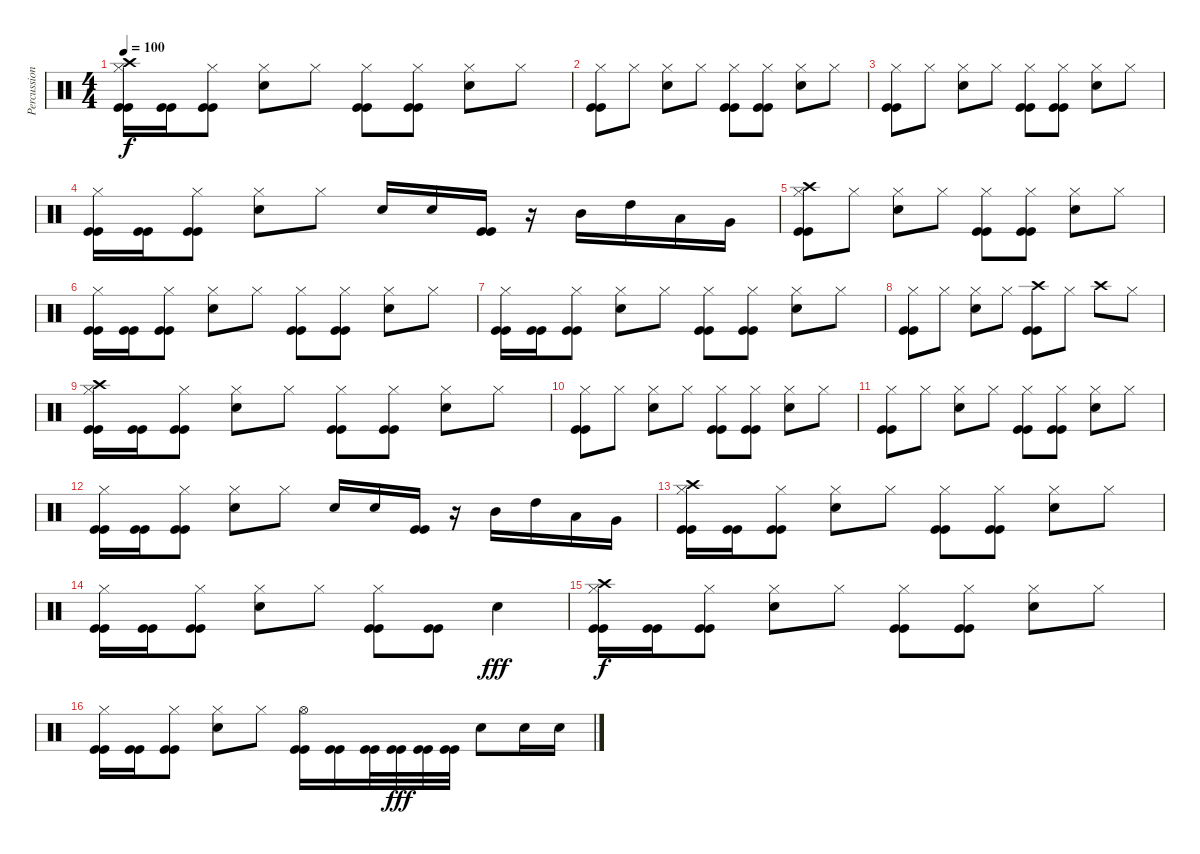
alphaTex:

\track ("Percussion" "Percussion") {instrument percussion}
\staff {score}
\articulation defaults
\ts (4 4)
\tempo 100
\clef neutral
\ks c
("Kick (hit)" "Kick (hit)" "Hi-Hat (closed)" "Crash high (hit)").16{dy f} ("Kick (hit)" "Kick (hit)").16 ("Kick (hit)" "Kick (hit)" "Hi-Hat (closed)").8 ("Snare (hit) 2" "Hi-Hat (closed)").8 "Hi-Hat (closed)".8 ("Kick (hit)" "Kick (hit)" "Hi-Hat (closed)").8 ("Kick (hit)" "Kick (hit)" "Hi-Hat (closed)").8 ("Snare (hit) 2" "Hi-Hat (closed)").8 "Hi-Hat (closed)".8 |
("Kick (hit)" "Kick (hit)" "Hi-Hat (closed)").8 "Hi-Hat (closed)".8 ("Snare (hit) 2" "Hi-Hat (closed)").8 "Hi-Hat (closed)".8 ("Kick (hit)" "Kick (hit)" "Hi-Hat (closed)").8 ("Kick (hit)" "Kick (hit)" "Hi-Hat (closed)").8 ("Snare (hit) 2" "Hi-Hat (closed)").8 "Hi-Hat (closed)".8 |
("Kick (hit)" "Kick (hit)" "Hi-Hat (closed)").8 "Hi-Hat (closed)".8 ("Snare (hit) 2" "Hi-Hat (closed)").8 "Hi-Hat (closed)".8 ("Kick (hit)" "Kick (hit)" "Hi-Hat (closed)").8 ("Kick (hit)" "Kick (hit)" "Hi-Hat (closed)").8 ("Snare (hit) 2" "Hi-Hat (closed)").8 "Hi-Hat (closed)".8 |
("Kick (hit)" "Kick (hit)" "Hi-Hat (closed)").16 ("Kick (hit)" "Kick (hit)").16 ("Kick (hit)" "Kick (hit)" "Hi-Hat (closed)").8 ("Snare (hit) 2" "Hi-Hat (closed)").8 "Hi-Hat (closed)".8 "Snare (hit) 2".16 "Snare (hit) 2".16 ("Kick (hit)" "Kick (hit)").16 r.16 "Mid Tom (hit)".16 "High Tom (hit)".16 "Low Tom (hit)".16 "Very Low Tom (hit)".16 |
("Kick (hit)" "Kick (hit)" "Hi-Hat (closed)" "Crash high (hit)").8 "Hi-Hat (closed)".8 ("Snare (hit) 2" "Hi-Hat (closed)").8 "Hi-Hat (closed)".8 ("Kick (hit)" "Kick (hit)" "Hi-Hat (closed)").8 ("Kick (hit)" "Kick (hit)" "Hi-Hat (closed)").8 ("Snare (hit) 2" "Hi-Hat (closed)").8 "Hi-Hat (closed)".8 |
("Kick (hit)" "Kick (hit)" "Hi-Hat (closed)").16 ("Kick (hit)" "Kick (hit)").16 ("Kick (hit)" "Kick (hit)" "Hi-Hat (closed)").8 ("Snare (hit) 2" "Hi-Hat (closed)").8 "Hi-Hat (closed)".8 ("Kick (hit)" "Kick (hit)" "Hi-Hat (closed)").8 ("Kick (hit)" "Kick (hit)" "Hi-Hat (closed)").8 ("Snare (hit) 2" "Hi-Hat (closed)").8 "Hi-Hat (closed)".8 |
("Kick (hit)" "Kick (hit)" "Hi-Hat (closed)").16 ("Kick (hit)" "Kick (hit)").16 ("Kick (hit)" "Kick (hit)" "Hi-Hat (closed)").8 ("Snare (hit) 2" "Hi-Hat (closed)").8 "Hi-Hat (closed)".8 ("Kick (hit)" "Kick (hit)" "Hi-Hat (closed)").8 ("Kick (hit)" "Kick (hit)" "Hi-Hat (closed)").8 ("Snare (hit) 2" "Hi-Hat (closed)").8 "Hi-Hat (closed)".8 |
("Kick (hit)" "Kick (hit)" "Hi-Hat (closed)").8 "Hi-Hat (closed)".8 ("Snare (hit) 2" "Hi-Hat (closed)").8 "Hi-Hat (closed)".8 ("Kick (hit)" "Kick (hit)" "Crash high (hit)").8 "Hi-Hat (closed)".8 "Crash high (hit)".8 "Hi-Hat (closed)".8 |
("Kick (hit)" "Kick (hit)" "Hi-Hat (closed)" "Crash high (hit)").16 ("Kick (hit)" "Kick (hit)").16 ("Kick (hit)" "Kick (hit)" "Hi-Hat (closed)").8 ("Snare (hit) 2" "Hi-Hat (closed)").8 "Hi-Hat (closed)".8 ("Kick (hit)" "Kick (hit)" "Hi-Hat (closed)").8 ("Kick (hit)" "Kick (hit)" "Hi-Hat (closed)").8 ("Snare (hit) 2" "Hi-Hat (closed)").8 "Hi-Hat (closed)".8 |
("Kick (hit)" "Kick (hit)" "Hi-Hat (closed)").8 "Hi-Hat (closed)".8 ("Snare (hit) 2" "Hi-Hat (closed)").8 "Hi-Hat (closed)".8 ("Kick (hit)" "Kick (hit)" "Hi-Hat (closed)").8 ("Kick (hit)" "Kick (hit)" "Hi-Hat (closed)").8 ("Snare (hit) 2" "Hi-Hat (closed)").8 "Hi-Hat (closed)".8 |
("Kick (hit)" "Kick (hit)" "Hi-Hat (closed)").8 "Hi-Hat (closed)".8 ("Snare (hit) 2" "Hi-Hat (closed)").8 "Hi-Hat (closed)".8 ("Kick (hit)" "Kick (hit)" "Hi-Hat (closed)").8 ("Kick (hit)" "Kick (hit)" "Hi-Hat (closed)").8 ("Snare (hit) 2" "Hi-Hat (closed)").8 "Hi-Hat (closed)".8 |
("Kick (hit)" "Kick (hit)" "Hi-Hat (closed)").16 ("Kick (hit)" "Kick (hit)").16 ("Kick (hit)" "Kick (hit)" "Hi-Hat (closed)").8 ("Snare (hit) 2" "Hi-Hat (closed)").8 "Hi-Hat (closed)".8 "Snare (hit) 2".16 "Snare (hit) 2".16 ("Kick (hit)" "Kick (hit)").16 r.16 "Mid Tom (hit)".16 "High Tom (hit)".16 "Low Tom (hit)".16 "Very Low Tom (hit)".16 |
("Kick (hit)" "Kick (hit)" "Hi-Hat (closed)" "Crash high (hit)").16 ("Kick (hit)" "Kick (hit)").16 ("Kick (hit)" "Kick (hit)" "Hi-Hat (closed)").8 ("Snare (hit) 2" "Hi-Hat (closed)").8 "Hi-Hat (closed)".8 ("Kick (hit)" "Kick (hit)" "Hi-Hat (closed)").8 ("Kick (hit)" "Kick (hit)" "Hi-Hat (closed)").8 ("Snare (hit) 2" "Hi-Hat (closed)").8 "Hi-Hat (closed)".8 |
("Kick (hit)" "Kick (hit)" "Hi-Hat (closed)").16 ("Kick (hit)" "Kick (hit)").16 ("Kick (hit)" "Kick (hit)" "Hi-Hat (closed)").8 ("Snare (hit) 2" "Hi-Hat (closed)").8 "Hi-Hat (closed)".8 ("Kick (hit)" "Kick (hit)" "Hi-Hat (closed)").8 ("Kick (hit)" "Kick (hit)").8 "Snare (hit) 2".4{dy fff} |
("Kick (hit)" "Kick (hit)" "Hi-Hat (closed)" "Crash high (hit)").16{dy f} ("Kick (hit)" "Kick (hit)").16 ("Kick (hit)" "Kick (hit)" "Hi-Hat (closed)").8 ("Snare (hit) 2" "Hi-Hat (closed)").8 "Hi-Hat (closed)".8 ("Kick (hit)" "Kick (hit)" "Hi-Hat (closed)").8 ("Kick (hit)" "Kick (hit)" "Hi-Hat (closed)").8 ("Snare (hit) 2" "Hi-Hat (closed)").8 "Hi-Hat (closed)".8 |
("Kick (hit)" "Kick (hit)" "Hi-Hat (closed)").16 ("Kick (hit)" "Kick (hit)").16 ("Kick (hit)" "Kick (hit)" "Hi-Hat (closed)").8 ("Snare (hit) 2" "Hi-Hat (closed)").8 "Hi-Hat (closed)".8 ("Kick (hit)" "Kick (hit)" "Hi-Hat (open)").16 ("Kick (hit)" "Kick (hit)").16 ("Kick (hit)" "Kick (hit)").32 ("Kick (hit)" "Kick (hit)").32{dy fff} ("Kick (hit)" "Kick (hit)").32 ("Kick (hit)" "Kick (hit)").32 "Snare (hit) 2".8 "Snare (hit) 2".16 "Snare (hit) 2".16
